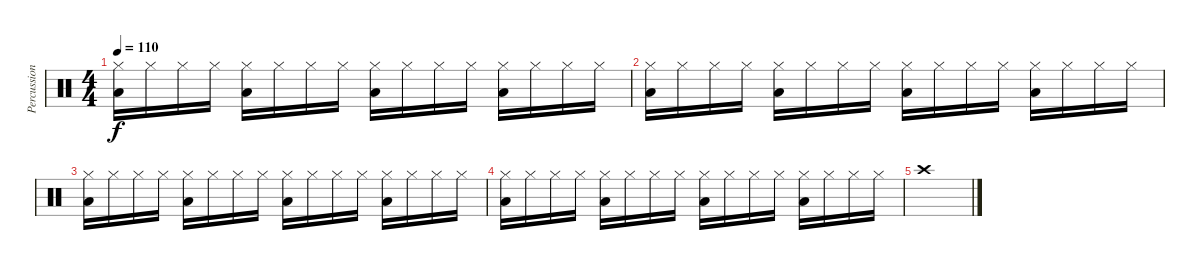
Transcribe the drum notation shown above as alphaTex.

\track ("Percussions" "Percussion") {instrument percussion}
\staff {score}
\articulation defaults
\ts (4 4)
\tempo 110
\clef neutral
\ks c
("Hi-Hat (closed)" "Low Floor Tom (hit)").16{dy f} "Hi-Hat (closed)".16 "Hi-Hat (closed)".16 "Hi-Hat (closed)".16 ("Hi-Hat (closed)" "Low Floor Tom (hit)").16 "Hi-Hat (closed)".16 "Hi-Hat (closed)".16 "Hi-Hat (closed)".16 ("Hi-Hat (closed)" "Low Floor Tom (hit)").16 "Hi-Hat (closed)".16 "Hi-Hat (closed)".16 "Hi-Hat (closed)".16 ("Hi-Hat (closed)" "Low Floor Tom (hit)").16 "Hi-Hat (closed)".16 "Hi-Hat (closed)".16 "Hi-Hat (closed)".16 |
("Hi-Hat (closed)" "Low Floor Tom (hit)").16 "Hi-Hat (closed)".16 "Hi-Hat (closed)".16 "Hi-Hat (closed)".16 ("Hi-Hat (closed)" "Low Floor Tom (hit)").16 "Hi-Hat (closed)".16 "Hi-Hat (closed)".16 "Hi-Hat (closed)".16 ("Hi-Hat (closed)" "Low Floor Tom (hit)").16 "Hi-Hat (closed)".16 "Hi-Hat (closed)".16 "Hi-Hat (closed)".16 ("Hi-Hat (closed)" "Low Floor Tom (hit)").16 "Hi-Hat (closed)".16 "Hi-Hat (closed)".16 "Hi-Hat (closed)".16 |
("Hi-Hat (closed)" "Low Floor Tom (hit)").16 "Hi-Hat (closed)".16 "Hi-Hat (closed)".16 "Hi-Hat (closed)".16 ("Hi-Hat (closed)" "Low Floor Tom (hit)").16 "Hi-Hat (closed)".16 "Hi-Hat (closed)".16 "Hi-Hat (closed)".16 ("Hi-Hat (closed)" "Low Floor Tom (hit)").16 "Hi-Hat (closed)".16 "Hi-Hat (closed)".16 "Hi-Hat (closed)".16 ("Hi-Hat (closed)" "Low Floor Tom (hit)").16 "Hi-Hat (closed)".16 "Hi-Hat (closed)".16 "Hi-Hat (closed)".16 |
("Hi-Hat (closed)" "Low Floor Tom (hit)").16 "Hi-Hat (closed)".16 "Hi-Hat (closed)".16 "Hi-Hat (closed)".16 ("Hi-Hat (closed)" "Low Floor Tom (hit)").16 "Hi-Hat (closed)".16 "Hi-Hat (closed)".16 "Hi-Hat (closed)".16 ("Hi-Hat (closed)" "Low Floor Tom (hit)").16 "Hi-Hat (closed)".16 "Hi-Hat (closed)".16 "Hi-Hat (closed)".16 ("Hi-Hat (closed)" "Low Floor Tom (hit)").16 "Hi-Hat (closed)".16 "Hi-Hat (closed)".16 "Hi-Hat (closed)".16 |
"Crash high (hit)".1
